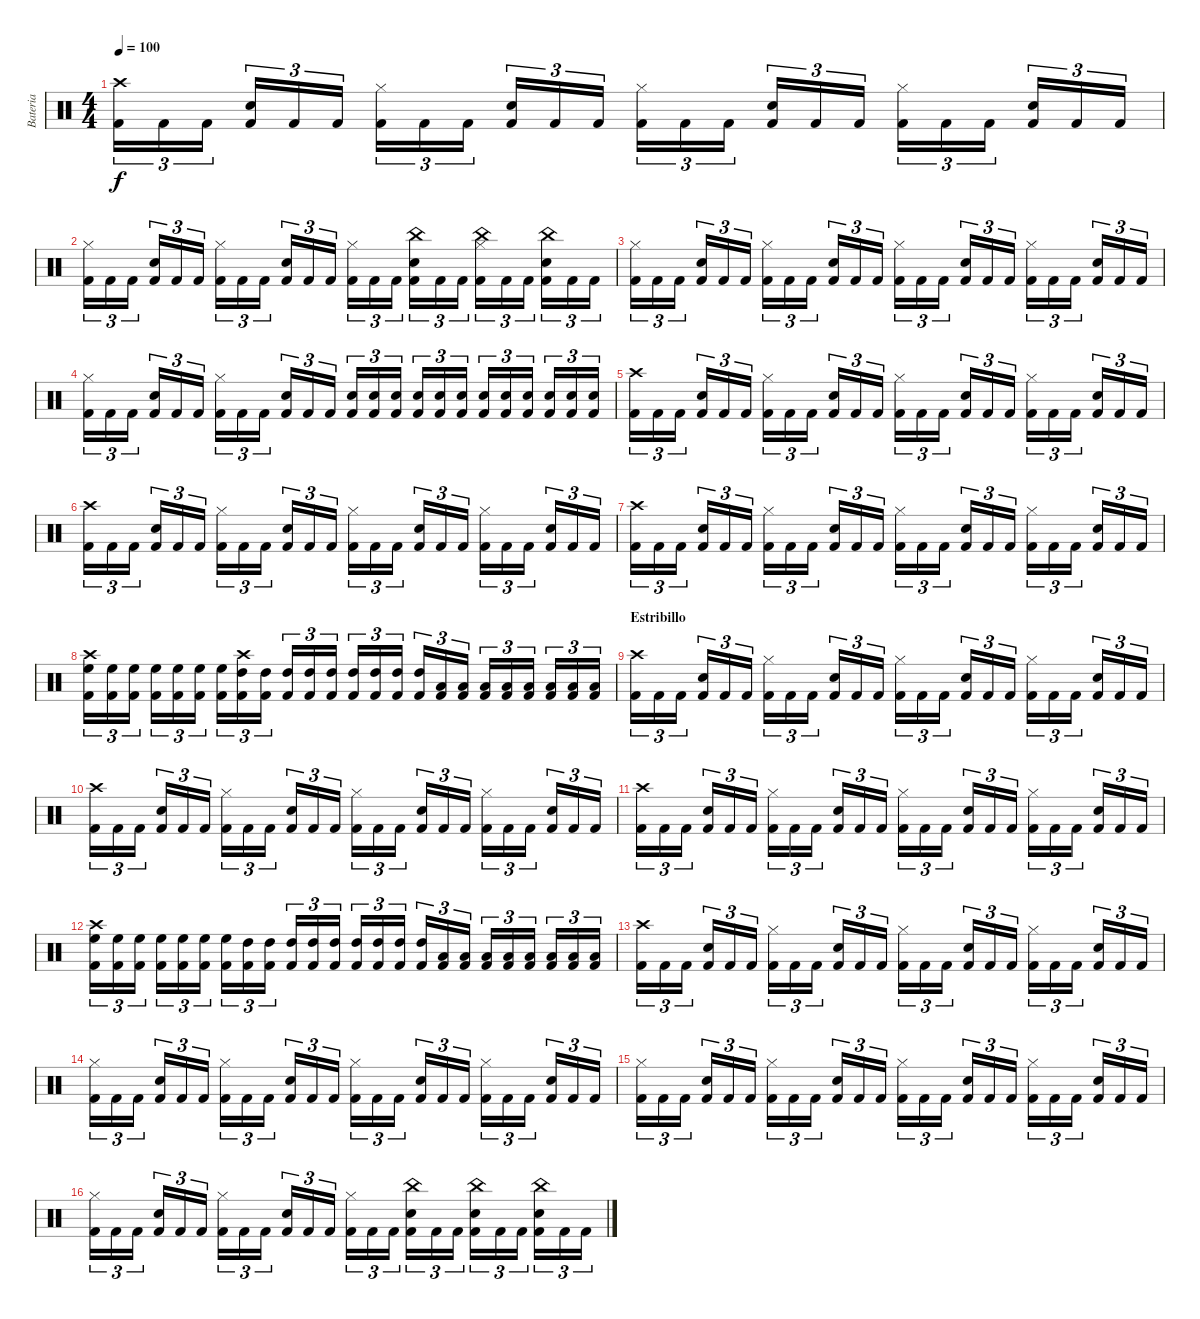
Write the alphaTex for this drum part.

\track ("Bateria" "Bateria") {instrument percussion}
\staff {score}
\articulation defaults
\ts (4 4)
\tempo 100
\clef neutral
\ks c
("Crash high (hit)" "Kick (hit) 2").16{tu (3 2) dy f} "Kick (hit) 2".16{tu (3 2)} "Kick (hit) 2".16{tu (3 2)} ("Snare (hit) 2" "Kick (hit) 2").16{tu (3 2)} "Kick (hit) 2".16{tu (3 2)} "Kick (hit) 2".16{tu (3 2)} ("Hi-Hat (closed)" "Kick (hit) 2").16{tu (3 2)} "Kick (hit) 2".16{tu (3 2)} "Kick (hit) 2".16{tu (3 2)} ("Snare (hit) 2" "Kick (hit) 2").16{tu (3 2)} "Kick (hit) 2".16{tu (3 2)} "Kick (hit) 2".16{tu (3 2)} ("Hi-Hat (closed)" "Kick (hit) 2").16{tu (3 2)} "Kick (hit) 2".16{tu (3 2)} "Kick (hit) 2".16{tu (3 2)} ("Snare (hit) 2" "Kick (hit) 2").16{tu (3 2)} "Kick (hit) 2".16{tu (3 2)} "Kick (hit) 2".16{tu (3 2)} ("Hi-Hat (closed)" "Kick (hit) 2").16{tu (3 2)} "Kick (hit) 2".16{tu (3 2)} "Kick (hit) 2".16{tu (3 2)} ("Snare (hit) 2" "Kick (hit) 2").16{tu (3 2)} "Kick (hit) 2".16{tu (3 2)} "Kick (hit) 2".16{tu (3 2)} |
("Hi-Hat (closed)" "Kick (hit) 2").16{tu (3 2)} "Kick (hit) 2".16{tu (3 2)} "Kick (hit) 2".16{tu (3 2)} ("Snare (hit) 2" "Kick (hit) 2").16{tu (3 2)} "Kick (hit) 2".16{tu (3 2)} "Kick (hit) 2".16{tu (3 2)} ("Hi-Hat (closed)" "Kick (hit) 2").16{tu (3 2)} "Kick (hit) 2".16{tu (3 2)} "Kick (hit) 2".16{tu (3 2)} ("Snare (hit) 2" "Kick (hit) 2").16{tu (3 2)} "Kick (hit) 2".16{tu (3 2)} "Kick (hit) 2".16{tu (3 2)} ("Hi-Hat (closed)" "Kick (hit) 2").16{tu (3 2)} "Kick (hit) 2".16{tu (3 2)} "Kick (hit) 2".16{tu (3 2)} ("China (hit)" "Snare (hit) 2" "Kick (hit) 2").16{tu (3 2)} "Kick (hit) 2".16{tu (3 2)} "Kick (hit) 2".16{tu (3 2)} ("China (hit)" "Hi-Hat (closed)" "Kick (hit) 2").16{tu (3 2)} "Kick (hit) 2".16{tu (3 2)} "Kick (hit) 2".16{tu (3 2)} ("China (hit)" "Snare (hit) 2" "Kick (hit) 2").16{tu (3 2)} "Kick (hit) 2".16{tu (3 2)} "Kick (hit) 2".16{tu (3 2)} |
("Hi-Hat (closed)" "Kick (hit) 2").16{tu (3 2)} "Kick (hit) 2".16{tu (3 2)} "Kick (hit) 2".16{tu (3 2)} ("Snare (hit) 2" "Kick (hit) 2").16{tu (3 2)} "Kick (hit) 2".16{tu (3 2)} "Kick (hit) 2".16{tu (3 2)} ("Hi-Hat (closed)" "Kick (hit) 2").16{tu (3 2)} "Kick (hit) 2".16{tu (3 2)} "Kick (hit) 2".16{tu (3 2)} ("Snare (hit) 2" "Kick (hit) 2").16{tu (3 2)} "Kick (hit) 2".16{tu (3 2)} "Kick (hit) 2".16{tu (3 2)} ("Hi-Hat (closed)" "Kick (hit) 2").16{tu (3 2)} "Kick (hit) 2".16{tu (3 2)} "Kick (hit) 2".16{tu (3 2)} ("Snare (hit) 2" "Kick (hit) 2").16{tu (3 2)} "Kick (hit) 2".16{tu (3 2)} "Kick (hit) 2".16{tu (3 2)} ("Hi-Hat (closed)" "Kick (hit) 2").16{tu (3 2)} "Kick (hit) 2".16{tu (3 2)} "Kick (hit) 2".16{tu (3 2)} ("Snare (hit) 2" "Kick (hit) 2").16{tu (3 2)} "Kick (hit) 2".16{tu (3 2)} "Kick (hit) 2".16{tu (3 2)} |
("Hi-Hat (closed)" "Kick (hit) 2").16{tu (3 2)} "Kick (hit) 2".16{tu (3 2)} "Kick (hit) 2".16{tu (3 2)} ("Snare (hit) 2" "Kick (hit) 2").16{tu (3 2)} "Kick (hit) 2".16{tu (3 2)} "Kick (hit) 2".16{tu (3 2)} ("Hi-Hat (closed)" "Kick (hit) 2").16{tu (3 2)} "Kick (hit) 2".16{tu (3 2)} "Kick (hit) 2".16{tu (3 2)} ("Snare (hit) 2" "Kick (hit) 2").16{tu (3 2)} "Kick (hit) 2".16{tu (3 2)} "Kick (hit) 2".16{tu (3 2)} ("Snare (hit) 2" "Kick (hit) 2").16{tu (3 2)} ("Snare (hit) 2" "Kick (hit) 2").16{tu (3 2)} ("Snare (hit) 2" "Kick (hit) 2").16{tu (3 2)} ("Snare (hit) 2" "Kick (hit) 2").16{tu (3 2)} ("Snare (hit) 2" "Kick (hit) 2").16{tu (3 2)} ("Snare (hit) 2" "Kick (hit) 2").16{tu (3 2)} ("Snare (hit) 2" "Kick (hit) 2").16{tu (3 2)} ("Snare (hit) 2" "Kick (hit) 2").16{tu (3 2)} ("Snare (hit) 2" "Kick (hit) 2").16{tu (3 2)} ("Snare (hit) 2" "Kick (hit) 2").16{tu (3 2)} ("Snare (hit) 2" "Kick (hit) 2").16{tu (3 2)} ("Snare (hit) 2" "Kick (hit) 2").16{tu (3 2)} |
("Crash high (hit)" "Kick (hit) 2").16{tu (3 2)} "Kick (hit) 2".16{tu (3 2)} "Kick (hit) 2".16{tu (3 2)} ("Snare (hit) 2" "Kick (hit) 2").16{tu (3 2)} "Kick (hit) 2".16{tu (3 2)} "Kick (hit) 2".16{tu (3 2)} ("Hi-Hat (closed)" "Kick (hit) 2").16{tu (3 2)} "Kick (hit) 2".16{tu (3 2)} "Kick (hit) 2".16{tu (3 2)} ("Snare (hit) 2" "Kick (hit) 2").16{tu (3 2)} "Kick (hit) 2".16{tu (3 2)} "Kick (hit) 2".16{tu (3 2)} ("Hi-Hat (closed)" "Kick (hit) 2").16{tu (3 2)} "Kick (hit) 2".16{tu (3 2)} "Kick (hit) 2".16{tu (3 2)} ("Snare (hit) 2" "Kick (hit) 2").16{tu (3 2)} "Kick (hit) 2".16{tu (3 2)} "Kick (hit) 2".16{tu (3 2)} ("Hi-Hat (closed)" "Kick (hit) 2").16{tu (3 2)} "Kick (hit) 2".16{tu (3 2)} "Kick (hit) 2".16{tu (3 2)} ("Snare (hit) 2" "Kick (hit) 2").16{tu (3 2)} "Kick (hit) 2".16{tu (3 2)} "Kick (hit) 2".16{tu (3 2)} |
("Crash high (hit)" "Kick (hit) 2").16{tu (3 2)} "Kick (hit) 2".16{tu (3 2)} "Kick (hit) 2".16{tu (3 2)} ("Snare (hit) 2" "Kick (hit) 2").16{tu (3 2)} "Kick (hit) 2".16{tu (3 2)} "Kick (hit) 2".16{tu (3 2)} ("Hi-Hat (closed)" "Kick (hit) 2").16{tu (3 2)} "Kick (hit) 2".16{tu (3 2)} "Kick (hit) 2".16{tu (3 2)} ("Snare (hit) 2" "Kick (hit) 2").16{tu (3 2)} "Kick (hit) 2".16{tu (3 2)} "Kick (hit) 2".16{tu (3 2)} ("Hi-Hat (closed)" "Kick (hit) 2").16{tu (3 2)} "Kick (hit) 2".16{tu (3 2)} "Kick (hit) 2".16{tu (3 2)} ("Snare (hit) 2" "Kick (hit) 2").16{tu (3 2)} "Kick (hit) 2".16{tu (3 2)} "Kick (hit) 2".16{tu (3 2)} ("Hi-Hat (closed)" "Kick (hit) 2").16{tu (3 2)} "Kick (hit) 2".16{tu (3 2)} "Kick (hit) 2".16{tu (3 2)} ("Snare (hit) 2" "Kick (hit) 2").16{tu (3 2)} "Kick (hit) 2".16{tu (3 2)} "Kick (hit) 2".16{tu (3 2)} |
("Crash high (hit)" "Kick (hit) 2").16{tu (3 2)} "Kick (hit) 2".16{tu (3 2)} "Kick (hit) 2".16{tu (3 2)} ("Snare (hit) 2" "Kick (hit) 2").16{tu (3 2)} "Kick (hit) 2".16{tu (3 2)} "Kick (hit) 2".16{tu (3 2)} ("Hi-Hat (closed)" "Kick (hit) 2").16{tu (3 2)} "Kick (hit) 2".16{tu (3 2)} "Kick (hit) 2".16{tu (3 2)} ("Snare (hit) 2" "Kick (hit) 2").16{tu (3 2)} "Kick (hit) 2".16{tu (3 2)} "Kick (hit) 2".16{tu (3 2)} ("Hi-Hat (closed)" "Kick (hit) 2").16{tu (3 2)} "Kick (hit) 2".16{tu (3 2)} "Kick (hit) 2".16{tu (3 2)} ("Snare (hit) 2" "Kick (hit) 2").16{tu (3 2)} "Kick (hit) 2".16{tu (3 2)} "Kick (hit) 2".16{tu (3 2)} ("Hi-Hat (closed)" "Kick (hit) 2").16{tu (3 2)} "Kick (hit) 2".16{tu (3 2)} "Kick (hit) 2".16{tu (3 2)} ("Snare (hit) 2" "Kick (hit) 2").16{tu (3 2)} "Kick (hit) 2".16{tu (3 2)} "Kick (hit) 2".16{tu (3 2)} |
\section ("" "")
("Crash high (hit)" "High Floor Tom (hit)" "Kick (hit) 2").16{tu (3 2)} ("High Floor Tom (hit)" "Kick (hit) 2").16{tu (3 2)} ("High Floor Tom (hit)" "Kick (hit) 2").16{tu (3 2)} ("High Floor Tom (hit)" "Kick (hit) 2").16{tu (3 2)} ("High Floor Tom (hit)" "Kick (hit) 2").16{tu (3 2)} ("High Floor Tom (hit)" "Kick (hit) 2").16{tu (3 2)} ("High Floor Tom (hit)" "Kick (hit) 2").16{tu (3 2)} ("Crash high (hit)" "High Tom (hit)" "Kick (hit) 2").16{tu (3 2)} ("High Tom (hit)" "Kick (hit) 2").16{tu (3 2)} ("High Tom (hit)" "Kick (hit) 2").16{tu (3 2)} ("High Tom (hit)" "Kick (hit) 2").16{tu (3 2)} ("High Tom (hit)" "Kick (hit) 2").16{tu (3 2)} ("High Tom (hit)" "Kick (hit) 2").16{tu (3 2)} ("High Tom (hit)" "Kick (hit) 2").16{tu (3 2)} ("High Tom (hit)" "Kick (hit) 2").16{tu (3 2)} ("High Tom (hit)" "Kick (hit) 2").16{tu (3 2)} ("Low Tom (hit)" "Kick (hit) 2").16{tu (3 2)} ("Low Tom (hit)" "Kick (hit) 2").16{tu (3 2)} ("Low Tom (hit)" "Kick (hit) 2").16{tu (3 2)} ("Low Tom (hit)" "Kick (hit) 2").16{tu (3 2)} ("Low Tom (hit)" "Kick (hit) 2").16{tu (3 2)} ("Low Tom (hit)" "Kick (hit) 2").16{tu (3 2)} ("Low Tom (hit)" "Kick (hit) 2").16{tu (3 2)} ("Low Tom (hit)" "Kick (hit) 2").16{tu (3 2)} |
\section ("" "Estribillo")
("Crash high (hit)" "Kick (hit) 2").16{tu (3 2)} "Kick (hit) 2".16{tu (3 2)} "Kick (hit) 2".16{tu (3 2)} ("Snare (hit) 2" "Kick (hit) 2").16{tu (3 2)} "Kick (hit) 2".16{tu (3 2)} "Kick (hit) 2".16{tu (3 2)} ("Hi-Hat (closed)" "Kick (hit) 2").16{tu (3 2)} "Kick (hit) 2".16{tu (3 2)} "Kick (hit) 2".16{tu (3 2)} ("Snare (hit) 2" "Kick (hit) 2").16{tu (3 2)} "Kick (hit) 2".16{tu (3 2)} "Kick (hit) 2".16{tu (3 2)} ("Hi-Hat (closed)" "Kick (hit) 2").16{tu (3 2)} "Kick (hit) 2".16{tu (3 2)} "Kick (hit) 2".16{tu (3 2)} ("Snare (hit) 2" "Kick (hit) 2").16{tu (3 2)} "Kick (hit) 2".16{tu (3 2)} "Kick (hit) 2".16{tu (3 2)} ("Hi-Hat (closed)" "Kick (hit) 2").16{tu (3 2)} "Kick (hit) 2".16{tu (3 2)} "Kick (hit) 2".16{tu (3 2)} ("Snare (hit) 2" "Kick (hit) 2").16{tu (3 2)} "Kick (hit) 2".16{tu (3 2)} "Kick (hit) 2".16{tu (3 2)} |
("Crash high (hit)" "Kick (hit) 2").16{tu (3 2)} "Kick (hit) 2".16{tu (3 2)} "Kick (hit) 2".16{tu (3 2)} ("Snare (hit) 2" "Kick (hit) 2").16{tu (3 2)} "Kick (hit) 2".16{tu (3 2)} "Kick (hit) 2".16{tu (3 2)} ("Hi-Hat (closed)" "Kick (hit) 2").16{tu (3 2)} "Kick (hit) 2".16{tu (3 2)} "Kick (hit) 2".16{tu (3 2)} ("Snare (hit) 2" "Kick (hit) 2").16{tu (3 2)} "Kick (hit) 2".16{tu (3 2)} "Kick (hit) 2".16{tu (3 2)} ("Hi-Hat (closed)" "Kick (hit) 2").16{tu (3 2)} "Kick (hit) 2".16{tu (3 2)} "Kick (hit) 2".16{tu (3 2)} ("Snare (hit) 2" "Kick (hit) 2").16{tu (3 2)} "Kick (hit) 2".16{tu (3 2)} "Kick (hit) 2".16{tu (3 2)} ("Hi-Hat (closed)" "Kick (hit) 2").16{tu (3 2)} "Kick (hit) 2".16{tu (3 2)} "Kick (hit) 2".16{tu (3 2)} ("Snare (hit) 2" "Kick (hit) 2").16{tu (3 2)} "Kick (hit) 2".16{tu (3 2)} "Kick (hit) 2".16{tu (3 2)} |
("Crash high (hit)" "Kick (hit) 2").16{tu (3 2)} "Kick (hit) 2".16{tu (3 2)} "Kick (hit) 2".16{tu (3 2)} ("Snare (hit) 2" "Kick (hit) 2").16{tu (3 2)} "Kick (hit) 2".16{tu (3 2)} "Kick (hit) 2".16{tu (3 2)} ("Hi-Hat (closed)" "Kick (hit) 2").16{tu (3 2)} "Kick (hit) 2".16{tu (3 2)} "Kick (hit) 2".16{tu (3 2)} ("Snare (hit) 2" "Kick (hit) 2").16{tu (3 2)} "Kick (hit) 2".16{tu (3 2)} "Kick (hit) 2".16{tu (3 2)} ("Hi-Hat (closed)" "Kick (hit) 2").16{tu (3 2)} "Kick (hit) 2".16{tu (3 2)} "Kick (hit) 2".16{tu (3 2)} ("Snare (hit) 2" "Kick (hit) 2").16{tu (3 2)} "Kick (hit) 2".16{tu (3 2)} "Kick (hit) 2".16{tu (3 2)} ("Hi-Hat (closed)" "Kick (hit) 2").16{tu (3 2)} "Kick (hit) 2".16{tu (3 2)} "Kick (hit) 2".16{tu (3 2)} ("Snare (hit) 2" "Kick (hit) 2").16{tu (3 2)} "Kick (hit) 2".16{tu (3 2)} "Kick (hit) 2".16{tu (3 2)} |
("Crash high (hit)" "High Floor Tom (hit)" "Kick (hit) 2").16{tu (3 2)} ("High Floor Tom (hit)" "Kick (hit) 2").16{tu (3 2)} ("High Floor Tom (hit)" "Kick (hit) 2").16{tu (3 2)} ("High Floor Tom (hit)" "Kick (hit) 2").16{tu (3 2)} ("High Floor Tom (hit)" "Kick (hit) 2").16{tu (3 2)} ("High Floor Tom (hit)" "Kick (hit) 2").16{tu (3 2)} ("High Floor Tom (hit)" "Kick (hit) 2").16{tu (3 2)} ("High Tom (hit)" "Kick (hit) 2").16{tu (3 2)} ("High Tom (hit)" "Kick (hit) 2").16{tu (3 2)} ("High Tom (hit)" "Kick (hit) 2").16{tu (3 2)} ("High Tom (hit)" "Kick (hit) 2").16{tu (3 2)} ("High Tom (hit)" "Kick (hit) 2").16{tu (3 2)} ("High Tom (hit)" "Kick (hit) 2").16{tu (3 2)} ("High Tom (hit)" "Kick (hit) 2").16{tu (3 2)} ("High Tom (hit)" "Kick (hit) 2").16{tu (3 2)} ("High Tom (hit)" "Kick (hit) 2").16{tu (3 2)} ("Low Tom (hit)" "Kick (hit) 2").16{tu (3 2)} ("Low Tom (hit)" "Kick (hit) 2").16{tu (3 2)} ("Low Tom (hit)" "Kick (hit) 2").16{tu (3 2)} ("Low Tom (hit)" "Kick (hit) 2").16{tu (3 2)} ("Low Tom (hit)" "Kick (hit) 2").16{tu (3 2)} ("Low Tom (hit)" "Kick (hit) 2").16{tu (3 2)} ("Low Tom (hit)" "Kick (hit) 2").16{tu (3 2)} ("Low Tom (hit)" "Kick (hit) 2").16{tu (3 2)} |
("Crash high (hit)" "Kick (hit) 2").16{tu (3 2)} "Kick (hit) 2".16{tu (3 2)} "Kick (hit) 2".16{tu (3 2)} ("Snare (hit) 2" "Kick (hit) 2").16{tu (3 2)} "Kick (hit) 2".16{tu (3 2)} "Kick (hit) 2".16{tu (3 2)} ("Hi-Hat (closed)" "Kick (hit) 2").16{tu (3 2)} "Kick (hit) 2".16{tu (3 2)} "Kick (hit) 2".16{tu (3 2)} ("Snare (hit) 2" "Kick (hit) 2").16{tu (3 2)} "Kick (hit) 2".16{tu (3 2)} "Kick (hit) 2".16{tu (3 2)} ("Hi-Hat (closed)" "Kick (hit) 2").16{tu (3 2)} "Kick (hit) 2".16{tu (3 2)} "Kick (hit) 2".16{tu (3 2)} ("Snare (hit) 2" "Kick (hit) 2").16{tu (3 2)} "Kick (hit) 2".16{tu (3 2)} "Kick (hit) 2".16{tu (3 2)} ("Hi-Hat (closed)" "Kick (hit) 2").16{tu (3 2)} "Kick (hit) 2".16{tu (3 2)} "Kick (hit) 2".16{tu (3 2)} ("Snare (hit) 2" "Kick (hit) 2").16{tu (3 2)} "Kick (hit) 2".16{tu (3 2)} "Kick (hit) 2".16{tu (3 2)} |
("Hi-Hat (closed)" "Kick (hit) 2").16{tu (3 2)} "Kick (hit) 2".16{tu (3 2)} "Kick (hit) 2".16{tu (3 2)} ("Snare (hit) 2" "Kick (hit) 2").16{tu (3 2)} "Kick (hit) 2".16{tu (3 2)} "Kick (hit) 2".16{tu (3 2)} ("Hi-Hat (closed)" "Kick (hit) 2").16{tu (3 2)} "Kick (hit) 2".16{tu (3 2)} "Kick (hit) 2".16{tu (3 2)} ("Snare (hit) 2" "Kick (hit) 2").16{tu (3 2)} "Kick (hit) 2".16{tu (3 2)} "Kick (hit) 2".16{tu (3 2)} ("Hi-Hat (closed)" "Kick (hit) 2").16{tu (3 2)} "Kick (hit) 2".16{tu (3 2)} "Kick (hit) 2".16{tu (3 2)} ("Snare (hit) 2" "Kick (hit) 2").16{tu (3 2)} "Kick (hit) 2".16{tu (3 2)} "Kick (hit) 2".16{tu (3 2)} ("Hi-Hat (closed)" "Kick (hit) 2").16{tu (3 2)} "Kick (hit) 2".16{tu (3 2)} "Kick (hit) 2".16{tu (3 2)} ("Snare (hit) 2" "Kick (hit) 2").16{tu (3 2)} "Kick (hit) 2".16{tu (3 2)} "Kick (hit) 2".16{tu (3 2)} |
("Hi-Hat (closed)" "Kick (hit) 2").16{tu (3 2)} "Kick (hit) 2".16{tu (3 2)} "Kick (hit) 2".16{tu (3 2)} ("Snare (hit) 2" "Kick (hit) 2").16{tu (3 2)} "Kick (hit) 2".16{tu (3 2)} "Kick (hit) 2".16{tu (3 2)} ("Hi-Hat (closed)" "Kick (hit) 2").16{tu (3 2)} "Kick (hit) 2".16{tu (3 2)} "Kick (hit) 2".16{tu (3 2)} ("Snare (hit) 2" "Kick (hit) 2").16{tu (3 2)} "Kick (hit) 2".16{tu (3 2)} "Kick (hit) 2".16{tu (3 2)} ("Hi-Hat (closed)" "Kick (hit) 2").16{tu (3 2)} "Kick (hit) 2".16{tu (3 2)} "Kick (hit) 2".16{tu (3 2)} ("Snare (hit) 2" "Kick (hit) 2").16{tu (3 2)} "Kick (hit) 2".16{tu (3 2)} "Kick (hit) 2".16{tu (3 2)} ("Hi-Hat (closed)" "Kick (hit) 2").16{tu (3 2)} "Kick (hit) 2".16{tu (3 2)} "Kick (hit) 2".16{tu (3 2)} ("Snare (hit) 2" "Kick (hit) 2").16{tu (3 2)} "Kick (hit) 2".16{tu (3 2)} "Kick (hit) 2".16{tu (3 2)} |
("Hi-Hat (closed)" "Kick (hit) 2").16{tu (3 2)} "Kick (hit) 2".16{tu (3 2)} "Kick (hit) 2".16{tu (3 2)} ("Snare (hit) 2" "Kick (hit) 2").16{tu (3 2)} "Kick (hit) 2".16{tu (3 2)} "Kick (hit) 2".16{tu (3 2)} ("Hi-Hat (closed)" "Kick (hit) 2").16{tu (3 2)} "Kick (hit) 2".16{tu (3 2)} "Kick (hit) 2".16{tu (3 2)} ("Snare (hit) 2" "Kick (hit) 2").16{tu (3 2)} "Kick (hit) 2".16{tu (3 2)} "Kick (hit) 2".16{tu (3 2)} ("Hi-Hat (closed)" "Kick (hit) 2").16{tu (3 2)} "Kick (hit) 2".16{tu (3 2)} "Kick (hit) 2".16{tu (3 2)} ("China (hit)" "Snare (hit) 2" "Kick (hit) 2").16{tu (3 2)} "Kick (hit) 2".16{tu (3 2)} "Kick (hit) 2".16{tu (3 2)} ("China (hit)" "Snare (hit) 2" "Kick (hit) 2").16{tu (3 2)} "Kick (hit) 2".16{tu (3 2)} "Kick (hit) 2".16{tu (3 2)} ("China (hit)" "Snare (hit) 2" "Kick (hit) 2").16{tu (3 2)} "Kick (hit) 2".16{tu (3 2)} "Kick (hit) 2".16{tu (3 2)}
